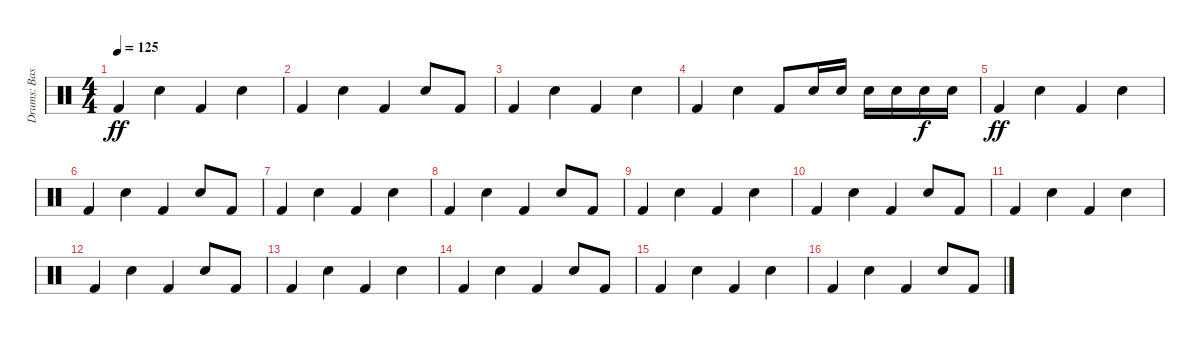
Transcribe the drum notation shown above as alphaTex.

\track ("Drums: Bass, Snare" "Drums: Bas") {instrument percussion}
\staff {score}
\articulation defaults
\ts (4 4)
\tempo 125
\clef neutral
\ks c "Kick (hit) 2".4{dy ff} "Electric Snare (hit)".4 "Kick (hit) 2".4 "Electric Snare (hit)".4
|
"Kick (hit) 2".4 "Electric Snare (hit)".4 "Kick (hit) 2".4 "Electric Snare (hit)".8 "Kick (hit) 2".8 |
"Kick (hit) 2".4 "Electric Snare (hit)".4 "Kick (hit) 2".4 "Electric Snare (hit)".4 |
"Kick (hit) 2".4 "Electric Snare (hit)".4 "Kick (hit) 2".8 "Electric Snare (hit)".16 "Electric Snare (hit)".16 "Electric Snare (hit)".16 "Electric Snare (hit)".16 "Electric Snare (hit)".16{dy f} "Electric Snare (hit)".16 |
"Kick (hit) 2".4{dy ff} "Electric Snare (hit)".4 "Kick (hit) 2".4 "Electric Snare (hit)".4 |
"Kick (hit) 2".4 "Electric Snare (hit)".4 "Kick (hit) 2".4 "Electric Snare (hit)".8 "Kick (hit) 2".8 |
"Kick (hit) 2".4 "Electric Snare (hit)".4 "Kick (hit) 2".4 "Electric Snare (hit)".4 |
"Kick (hit) 2".4 "Electric Snare (hit)".4 "Kick (hit) 2".4 "Electric Snare (hit)".8 "Kick (hit) 2".8 |
"Kick (hit) 2".4 "Electric Snare (hit)".4 "Kick (hit) 2".4 "Electric Snare (hit)".4 |
"Kick (hit) 2".4 "Electric Snare (hit)".4 "Kick (hit) 2".4 "Electric Snare (hit)".8 "Kick (hit) 2".8 |
"Kick (hit) 2".4 "Electric Snare (hit)".4 "Kick (hit) 2".4 "Electric Snare (hit)".4 |
"Kick (hit) 2".4 "Electric Snare (hit)".4 "Kick (hit) 2".4 "Electric Snare (hit)".8 "Kick (hit) 2".8 |
"Kick (hit) 2".4 "Electric Snare (hit)".4 "Kick (hit) 2".4 "Electric Snare (hit)".4 |
"Kick (hit) 2".4 "Electric Snare (hit)".4 "Kick (hit) 2".4 "Electric Snare (hit)".8 "Kick (hit) 2".8 |
"Kick (hit) 2".4 "Electric Snare (hit)".4 "Kick (hit) 2".4 "Electric Snare (hit)".4 |
"Kick (hit) 2".4 "Electric Snare (hit)".4 "Kick (hit) 2".4 "Electric Snare (hit)".8 "Kick (hit) 2".8
